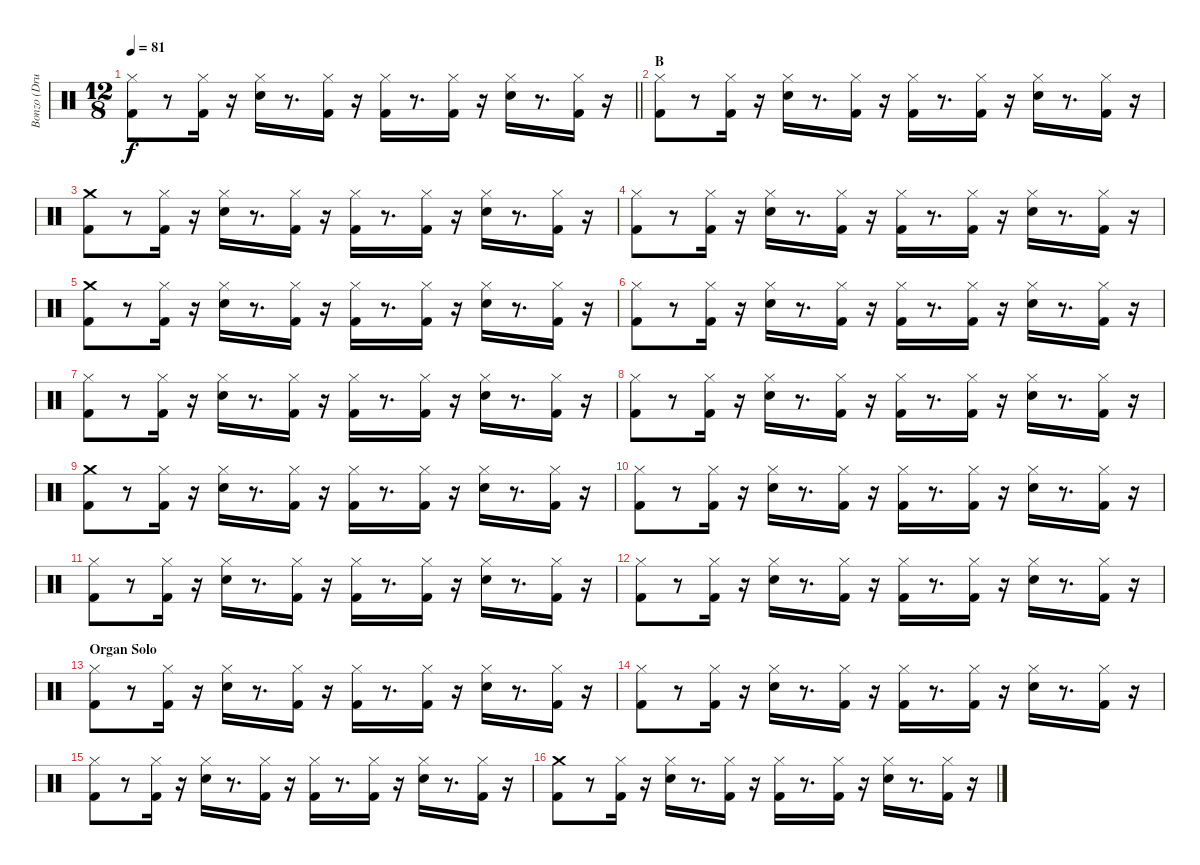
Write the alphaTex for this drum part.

\track ("Bonzo (Drums)" "Bonzo (Dru") {instrument percussion}
\staff {score}
\articulation defaults
\ts (12 8)
\tempo 81
\clef neutral
\barLineRight lightlight
\ks c
("Kick (hit) 2" "Hi-Hat (closed)").8{dy f} r.8 ("Kick (hit) 2" "Hi-Hat (closed)").16 r.16 ("Hi-Hat (closed)" "Electric Snare (hit)").16 r.8{d} ("Hi-Hat (closed)" "Kick (hit) 2").16 r.16 ("Hi-Hat (closed)" "Kick (hit) 2").16 r.8{d} ("Hi-Hat (closed)" "Kick (hit) 2").16 r.16 ("Hi-Hat (closed)" "Electric Snare (hit)").16 r.8{d} ("Hi-Hat (closed)" "Kick (hit) 2").16 r.16 |
\section ("" "B")
("Kick (hit) 2" "Hi-Hat (closed)").8 r.8 ("Kick (hit) 2" "Hi-Hat (closed)").16 r.16 ("Hi-Hat (closed)" "Electric Snare (hit)").16 r.8{d} ("Hi-Hat (closed)" "Kick (hit) 2").16 r.16 ("Hi-Hat (closed)" "Kick (hit) 2").16 r.8{d} ("Hi-Hat (closed)" "Kick (hit) 2").16 r.16 ("Hi-Hat (closed)" "Electric Snare (hit)").16 r.8{d} ("Hi-Hat (closed)" "Kick (hit) 2").16 r.16 |
("Kick (hit) 2" "Crash medium (hit)").8 r.8 ("Kick (hit) 2" "Hi-Hat (closed)").16 r.16 ("Hi-Hat (closed)" "Electric Snare (hit)").16 r.8{d} ("Hi-Hat (closed)" "Kick (hit) 2").16 r.16 ("Hi-Hat (closed)" "Kick (hit) 2").16 r.8{d} ("Hi-Hat (closed)" "Kick (hit) 2").16 r.16 ("Hi-Hat (closed)" "Electric Snare (hit)").16 r.8{d} ("Hi-Hat (closed)" "Kick (hit) 2").16 r.16 |
("Kick (hit) 2" "Hi-Hat (closed)").8 r.8 ("Kick (hit) 2" "Hi-Hat (closed)").16 r.16 ("Hi-Hat (closed)" "Electric Snare (hit)").16 r.8{d} ("Hi-Hat (closed)" "Kick (hit) 2").16 r.16 ("Hi-Hat (closed)" "Kick (hit) 2").16 r.8{d} ("Hi-Hat (closed)" "Kick (hit) 2").16 r.16 ("Hi-Hat (closed)" "Electric Snare (hit)").16 r.8{d} ("Hi-Hat (closed)" "Kick (hit) 2").16 r.16 |
("Kick (hit) 2" "Crash medium (hit)").8 r.8 ("Kick (hit) 2" "Hi-Hat (closed)").16 r.16 ("Hi-Hat (closed)" "Electric Snare (hit)").16 r.8{d} ("Hi-Hat (closed)" "Kick (hit) 2").16 r.16 ("Hi-Hat (closed)" "Kick (hit) 2").16 r.8{d} ("Hi-Hat (closed)" "Kick (hit) 2").16 r.16 ("Hi-Hat (closed)" "Electric Snare (hit)").16 r.8{d} ("Hi-Hat (closed)" "Kick (hit) 2").16 r.16 |
("Kick (hit) 2" "Hi-Hat (closed)").8 r.8 ("Kick (hit) 2" "Hi-Hat (closed)").16 r.16 ("Hi-Hat (closed)" "Electric Snare (hit)").16 r.8{d} ("Hi-Hat (closed)" "Kick (hit) 2").16 r.16 ("Hi-Hat (closed)" "Kick (hit) 2").16 r.8{d} ("Hi-Hat (closed)" "Kick (hit) 2").16 r.16 ("Hi-Hat (closed)" "Electric Snare (hit)").16 r.8{d} ("Hi-Hat (closed)" "Kick (hit) 2").16 r.16 |
("Kick (hit) 2" "Hi-Hat (closed)").8 r.8 ("Kick (hit) 2" "Hi-Hat (closed)").16 r.16 ("Hi-Hat (closed)" "Electric Snare (hit)").16 r.8{d} ("Hi-Hat (closed)" "Kick (hit) 2").16 r.16 ("Hi-Hat (closed)" "Kick (hit) 2").16 r.8{d} ("Hi-Hat (closed)" "Kick (hit) 2").16 r.16 ("Hi-Hat (closed)" "Electric Snare (hit)").16 r.8{d} ("Hi-Hat (closed)" "Kick (hit) 2").16 r.16 |
("Kick (hit) 2" "Hi-Hat (closed)").8 r.8 ("Kick (hit) 2" "Hi-Hat (closed)").16 r.16 ("Hi-Hat (closed)" "Electric Snare (hit)").16 r.8{d} ("Hi-Hat (closed)" "Kick (hit) 2").16 r.16 ("Hi-Hat (closed)" "Kick (hit) 2").16 r.8{d} ("Hi-Hat (closed)" "Kick (hit) 2").16 r.16 ("Hi-Hat (closed)" "Electric Snare (hit)").16 r.8{d} ("Hi-Hat (closed)" "Kick (hit) 2").16 r.16 |
("Kick (hit) 2" "Crash medium (hit)").8 r.8 ("Kick (hit) 2" "Hi-Hat (closed)").16 r.16 ("Hi-Hat (closed)" "Electric Snare (hit)").16 r.8{d} ("Hi-Hat (closed)" "Kick (hit) 2").16 r.16 ("Hi-Hat (closed)" "Kick (hit) 2").16 r.8{d} ("Hi-Hat (closed)" "Kick (hit) 2").16 r.16 ("Hi-Hat (closed)" "Electric Snare (hit)").16 r.8{d} ("Hi-Hat (closed)" "Kick (hit) 2").16 r.16 |
("Kick (hit) 2" "Hi-Hat (closed)").8 r.8 ("Kick (hit) 2" "Hi-Hat (closed)").16 r.16 ("Hi-Hat (closed)" "Electric Snare (hit)").16 r.8{d} ("Hi-Hat (closed)" "Kick (hit) 2").16 r.16 ("Hi-Hat (closed)" "Kick (hit) 2").16 r.8{d} ("Hi-Hat (closed)" "Kick (hit) 2").16 r.16 ("Hi-Hat (closed)" "Electric Snare (hit)").16 r.8{d} ("Hi-Hat (closed)" "Kick (hit) 2").16 r.16 |
("Kick (hit) 2" "Hi-Hat (closed)").8 r.8 ("Kick (hit) 2" "Hi-Hat (closed)").16 r.16 ("Hi-Hat (closed)" "Electric Snare (hit)").16 r.8{d} ("Hi-Hat (closed)" "Kick (hit) 2").16 r.16 ("Hi-Hat (closed)" "Kick (hit) 2").16 r.8{d} ("Hi-Hat (closed)" "Kick (hit) 2").16 r.16 ("Hi-Hat (closed)" "Electric Snare (hit)").16 r.8{d} ("Hi-Hat (closed)" "Kick (hit) 2").16 r.16 |
("Kick (hit) 2" "Hi-Hat (closed)").8 r.8 ("Kick (hit) 2" "Hi-Hat (closed)").16 r.16 ("Hi-Hat (closed)" "Electric Snare (hit)").16 r.8{d} ("Hi-Hat (closed)" "Kick (hit) 2").16 r.16 ("Hi-Hat (closed)" "Kick (hit) 2").16 r.8{d} ("Hi-Hat (closed)" "Kick (hit) 2").16 r.16 ("Hi-Hat (closed)" "Electric Snare (hit)").16 r.8{d} ("Hi-Hat (closed)" "Kick (hit) 2").16 r.16 |
\section ("" "Organ Solo")
("Kick (hit) 2" "Hi-Hat (closed)").8 r.8 ("Kick (hit) 2" "Hi-Hat (closed)").16 r.16 ("Hi-Hat (closed)" "Electric Snare (hit)").16 r.8{d} ("Hi-Hat (closed)" "Kick (hit) 2").16 r.16 ("Hi-Hat (closed)" "Kick (hit) 2").16 r.8{d} ("Hi-Hat (closed)" "Kick (hit) 2").16 r.16 ("Hi-Hat (closed)" "Electric Snare (hit)").16 r.8{d} ("Hi-Hat (closed)" "Kick (hit) 2").16 r.16 |
("Kick (hit) 2" "Hi-Hat (closed)").8 r.8 ("Kick (hit) 2" "Hi-Hat (closed)").16 r.16 ("Hi-Hat (closed)" "Electric Snare (hit)").16 r.8{d} ("Hi-Hat (closed)" "Kick (hit) 2").16 r.16 ("Hi-Hat (closed)" "Kick (hit) 2").16 r.8{d} ("Hi-Hat (closed)" "Kick (hit) 2").16 r.16 ("Hi-Hat (closed)" "Electric Snare (hit)").16 r.8{d} ("Hi-Hat (closed)" "Kick (hit) 2").16 r.16 |
("Kick (hit) 2" "Hi-Hat (closed)").8 r.8 ("Kick (hit) 2" "Hi-Hat (closed)").16 r.16 ("Hi-Hat (closed)" "Electric Snare (hit)").16 r.8{d} ("Hi-Hat (closed)" "Kick (hit) 2").16 r.16 ("Hi-Hat (closed)" "Kick (hit) 2").16 r.8{d} ("Hi-Hat (closed)" "Kick (hit) 2").16 r.16 ("Hi-Hat (closed)" "Electric Snare (hit)").16 r.8{d} ("Hi-Hat (closed)" "Kick (hit) 2").16 r.16 |
("Kick (hit) 2" "Crash medium (hit)").8 r.8 ("Kick (hit) 2" "Hi-Hat (closed)").16 r.16 ("Hi-Hat (closed)" "Electric Snare (hit)").16 r.8{d} ("Hi-Hat (closed)" "Kick (hit) 2").16 r.16 ("Hi-Hat (closed)" "Kick (hit) 2").16 r.8{d} ("Hi-Hat (closed)" "Kick (hit) 2").16 r.16 ("Hi-Hat (closed)" "Electric Snare (hit)").16 r.8{d} ("Hi-Hat (closed)" "Kick (hit) 2").16 r.16
